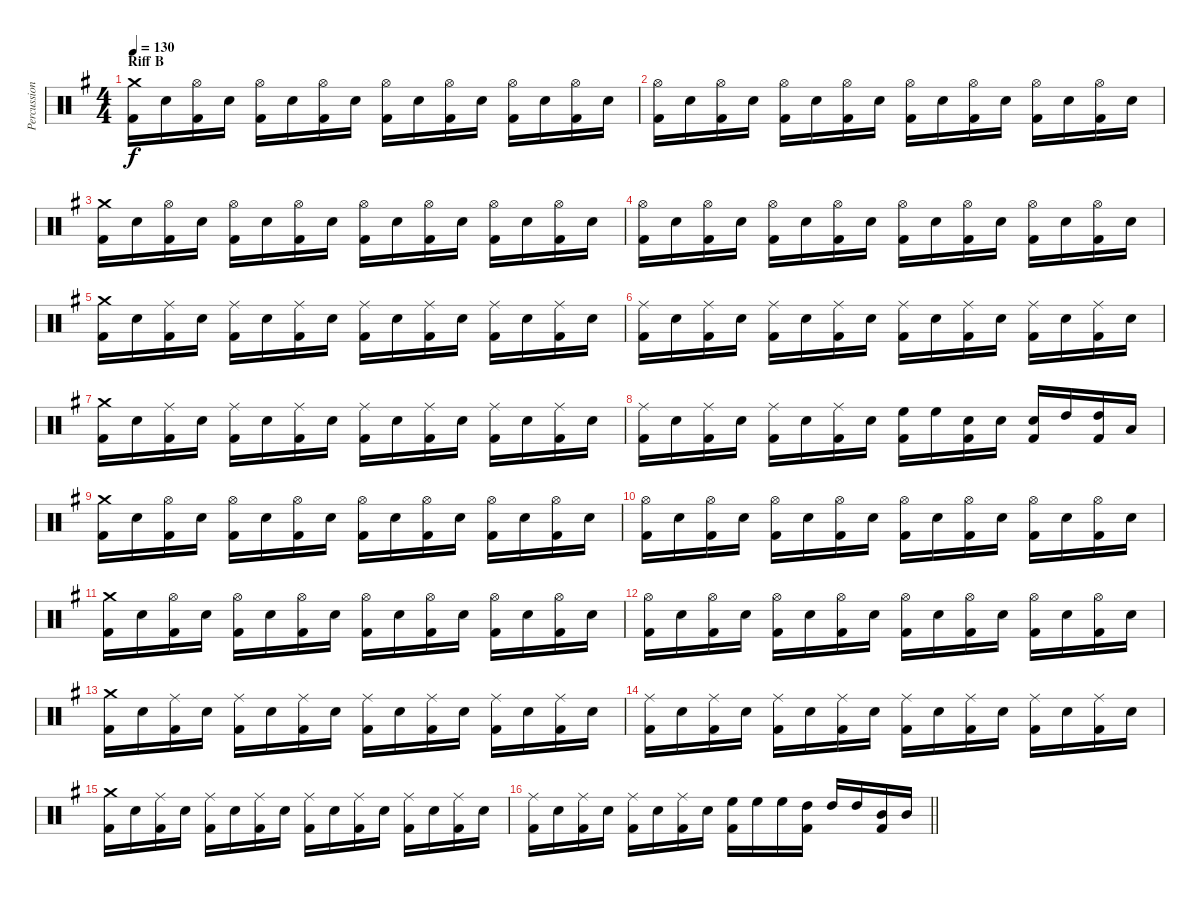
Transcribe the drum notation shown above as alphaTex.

\track ("Percussion" "Percussion") {instrument percussion}
\staff {score}
\articulation defaults
\ts (4 4)
\section ("" "Riff B")
\tempo 130
\clef neutral
\ks eminor
("Crash medium (hit)" "Kick (hit) 2").16{dy f} "Snare (hit) 2".16 ("Hi-Hat (open)" "Kick (hit) 2").16 "Snare (hit) 2".16 ("Hi-Hat (open)" "Kick (hit) 2").16 "Snare (hit) 2".16 ("Hi-Hat (open)" "Kick (hit) 2").16 "Snare (hit) 2".16 ("Hi-Hat (open)" "Kick (hit) 2").16 "Snare (hit) 2".16 ("Hi-Hat (open)" "Kick (hit) 2").16 "Snare (hit) 2".16 ("Hi-Hat (open)" "Kick (hit) 2").16 "Snare (hit) 2".16 ("Hi-Hat (open)" "Kick (hit) 2").16 "Snare (hit) 2".16 |
("Hi-Hat (open)" "Kick (hit) 2").16 "Snare (hit) 2".16 ("Hi-Hat (open)" "Kick (hit) 2").16 "Snare (hit) 2".16 ("Hi-Hat (open)" "Kick (hit) 2").16 "Snare (hit) 2".16 ("Hi-Hat (open)" "Kick (hit) 2").16 "Snare (hit) 2".16 ("Hi-Hat (open)" "Kick (hit) 2").16 "Snare (hit) 2".16 ("Hi-Hat (open)" "Kick (hit) 2").16 "Snare (hit) 2".16 ("Hi-Hat (open)" "Kick (hit) 2").16 "Snare (hit) 2".16 ("Hi-Hat (open)" "Kick (hit) 2").16 "Snare (hit) 2".16 |
("Crash medium (hit)" "Kick (hit) 2").16 "Snare (hit) 2".16 ("Hi-Hat (open)" "Kick (hit) 2").16 "Snare (hit) 2".16 ("Hi-Hat (open)" "Kick (hit) 2").16 "Snare (hit) 2".16 ("Hi-Hat (open)" "Kick (hit) 2").16 "Snare (hit) 2".16 ("Hi-Hat (open)" "Kick (hit) 2").16 "Snare (hit) 2".16 ("Hi-Hat (open)" "Kick (hit) 2").16 "Snare (hit) 2".16 ("Hi-Hat (open)" "Kick (hit) 2").16 "Snare (hit) 2".16 ("Hi-Hat (open)" "Kick (hit) 2").16 "Snare (hit) 2".16 |
("Hi-Hat (open)" "Kick (hit) 2").16 "Snare (hit) 2".16 ("Hi-Hat (open)" "Kick (hit) 2").16 "Snare (hit) 2".16 ("Hi-Hat (open)" "Kick (hit) 2").16 "Snare (hit) 2".16 ("Hi-Hat (open)" "Kick (hit) 2").16 "Snare (hit) 2".16 ("Hi-Hat (open)" "Kick (hit) 2").16 "Snare (hit) 2".16 ("Hi-Hat (open)" "Kick (hit) 2").16 "Snare (hit) 2".16 ("Hi-Hat (open)" "Kick (hit) 2").16 "Snare (hit) 2".16 ("Hi-Hat (open)" "Kick (hit) 2").16 "Snare (hit) 2".16 |
("Crash medium (hit)" "Kick (hit) 2").16 "Snare (hit) 2".16 ("Ride (middle)" "Kick (hit) 2").16 "Snare (hit) 2".16 ("Ride (middle)" "Kick (hit) 2").16 "Snare (hit) 2".16 ("Ride (middle)" "Kick (hit) 2").16 "Snare (hit) 2".16 ("Ride (middle)" "Kick (hit) 2").16 "Snare (hit) 2".16 ("Ride (middle)" "Kick (hit) 2").16 "Snare (hit) 2".16 ("Ride (middle)" "Kick (hit) 2").16 "Snare (hit) 2".16 ("Ride (middle)" "Kick (hit) 2").16 "Snare (hit) 2".16 |
("Ride (middle)" "Kick (hit) 2").16 "Snare (hit) 2".16 ("Ride (middle)" "Kick (hit) 2").16 "Snare (hit) 2".16 ("Ride (middle)" "Kick (hit) 2").16 "Snare (hit) 2".16 ("Ride (middle)" "Kick (hit) 2").16 "Snare (hit) 2".16 ("Ride (middle)" "Kick (hit) 2").16 "Snare (hit) 2".16 ("Ride (middle)" "Kick (hit) 2").16 "Snare (hit) 2".16 ("Ride (middle)" "Kick (hit) 2").16 "Snare (hit) 2".16 ("Ride (middle)" "Kick (hit) 2").16 "Snare (hit) 2".16 |
("Crash medium (hit)" "Kick (hit) 2").16 "Snare (hit) 2".16 ("Ride (middle)" "Kick (hit) 2").16 "Snare (hit) 2".16 ("Ride (middle)" "Kick (hit) 2").16 "Snare (hit) 2".16 ("Ride (middle)" "Kick (hit) 2").16 "Snare (hit) 2".16 ("Ride (middle)" "Kick (hit) 2").16 "Snare (hit) 2".16 ("Ride (middle)" "Kick (hit) 2").16 "Snare (hit) 2".16 ("Ride (middle)" "Kick (hit) 2").16 "Snare (hit) 2".16 ("Ride (middle)" "Kick (hit) 2").16 "Snare (hit) 2".16 |
("Ride (middle)" "Kick (hit) 2").16 "Snare (hit) 2".16 ("Ride (middle)" "Kick (hit) 2").16 "Snare (hit) 2".16 ("Ride (middle)" "Kick (hit) 2").16 "Snare (hit) 2".16 ("Ride (middle)" "Kick (hit) 2").16 "Snare (hit) 2".16 ("High Floor Tom (hit)" "Kick (hit) 2").16 "High Floor Tom (hit)".16 ("Snare (hit) 2" "Kick (hit) 2").16 "Snare (hit) 2".16 ("Snare (hit) 2" "Kick (hit) 2").16 "High Tom (hit)".16 ("High Tom (hit)" "Kick (hit) 2").16 "Low Tom (hit)".16 |
("Crash medium (hit)" "Kick (hit) 2").16 "Snare (hit) 2".16 ("Hi-Hat (open)" "Kick (hit) 2").16 "Snare (hit) 2".16 ("Hi-Hat (open)" "Kick (hit) 2").16 "Snare (hit) 2".16 ("Hi-Hat (open)" "Kick (hit) 2").16 "Snare (hit) 2".16 ("Hi-Hat (open)" "Kick (hit) 2").16 "Snare (hit) 2".16 ("Hi-Hat (open)" "Kick (hit) 2").16 "Snare (hit) 2".16 ("Hi-Hat (open)" "Kick (hit) 2").16 "Snare (hit) 2".16 ("Hi-Hat (open)" "Kick (hit) 2").16 "Snare (hit) 2".16 |
("Hi-Hat (open)" "Kick (hit) 2").16 "Snare (hit) 2".16 ("Hi-Hat (open)" "Kick (hit) 2").16 "Snare (hit) 2".16 ("Hi-Hat (open)" "Kick (hit) 2").16 "Snare (hit) 2".16 ("Hi-Hat (open)" "Kick (hit) 2").16 "Snare (hit) 2".16 ("Hi-Hat (open)" "Kick (hit) 2").16 "Snare (hit) 2".16 ("Hi-Hat (open)" "Kick (hit) 2").16 "Snare (hit) 2".16 ("Hi-Hat (open)" "Kick (hit) 2").16 "Snare (hit) 2".16 ("Hi-Hat (open)" "Kick (hit) 2").16 "Snare (hit) 2".16 |
("Crash medium (hit)" "Kick (hit) 2").16 "Snare (hit) 2".16 ("Hi-Hat (open)" "Kick (hit) 2").16 "Snare (hit) 2".16 ("Hi-Hat (open)" "Kick (hit) 2").16 "Snare (hit) 2".16 ("Hi-Hat (open)" "Kick (hit) 2").16 "Snare (hit) 2".16 ("Hi-Hat (open)" "Kick (hit) 2").16 "Snare (hit) 2".16 ("Hi-Hat (open)" "Kick (hit) 2").16 "Snare (hit) 2".16 ("Hi-Hat (open)" "Kick (hit) 2").16 "Snare (hit) 2".16 ("Hi-Hat (open)" "Kick (hit) 2").16 "Snare (hit) 2".16 |
("Hi-Hat (open)" "Kick (hit) 2").16 "Snare (hit) 2".16 ("Hi-Hat (open)" "Kick (hit) 2").16 "Snare (hit) 2".16 ("Hi-Hat (open)" "Kick (hit) 2").16 "Snare (hit) 2".16 ("Hi-Hat (open)" "Kick (hit) 2").16 "Snare (hit) 2".16 ("Hi-Hat (open)" "Kick (hit) 2").16 "Snare (hit) 2".16 ("Hi-Hat (open)" "Kick (hit) 2").16 "Snare (hit) 2".16 ("Hi-Hat (open)" "Kick (hit) 2").16 "Snare (hit) 2".16 ("Hi-Hat (open)" "Kick (hit) 2").16 "Snare (hit) 2".16 |
("Crash medium (hit)" "Kick (hit) 2").16 "Snare (hit) 2".16 ("Ride (middle)" "Kick (hit) 2").16 "Snare (hit) 2".16 ("Ride (middle)" "Kick (hit) 2").16 "Snare (hit) 2".16 ("Ride (middle)" "Kick (hit) 2").16 "Snare (hit) 2".16 ("Ride (middle)" "Kick (hit) 2").16 "Snare (hit) 2".16 ("Ride (middle)" "Kick (hit) 2").16 "Snare (hit) 2".16 ("Ride (middle)" "Kick (hit) 2").16 "Snare (hit) 2".16 ("Ride (middle)" "Kick (hit) 2").16 "Snare (hit) 2".16 |
("Ride (middle)" "Kick (hit) 2").16 "Snare (hit) 2".16 ("Ride (middle)" "Kick (hit) 2").16 "Snare (hit) 2".16 ("Ride (middle)" "Kick (hit) 2").16 "Snare (hit) 2".16 ("Ride (middle)" "Kick (hit) 2").16 "Snare (hit) 2".16 ("Ride (middle)" "Kick (hit) 2").16 "Snare (hit) 2".16 ("Ride (middle)" "Kick (hit) 2").16 "Snare (hit) 2".16 ("Ride (middle)" "Kick (hit) 2").16 "Snare (hit) 2".16 ("Ride (middle)" "Kick (hit) 2").16 "Snare (hit) 2".16 |
("Crash medium (hit)" "Kick (hit) 2").16 "Snare (hit) 2".16 ("Ride (middle)" "Kick (hit) 2").16 "Snare (hit) 2".16 ("Ride (middle)" "Kick (hit) 2").16 "Snare (hit) 2".16 ("Ride (middle)" "Kick (hit) 2").16 "Snare (hit) 2".16 ("Ride (middle)" "Kick (hit) 2").16 "Snare (hit) 2".16 ("Ride (middle)" "Kick (hit) 2").16 "Snare (hit) 2".16 ("Ride (middle)" "Kick (hit) 2").16 "Snare (hit) 2".16 ("Ride (middle)" "Kick (hit) 2").16 "Snare (hit) 2".16 |
\barLineRight lightlight
("Ride (middle)" "Kick (hit) 2").16 "Snare (hit) 2".16 ("Ride (middle)" "Kick (hit) 2").16 "Snare (hit) 2".16 ("Ride (middle)" "Kick (hit) 2").16 "Snare (hit) 2".16 ("Ride (middle)" "Kick (hit) 2").16 "Snare (hit) 2".16 ("High Floor Tom (hit)" "Kick (hit) 2").16 "High Floor Tom (hit)".16 "High Floor Tom (hit)".16 ("High Tom (hit)" "Kick (hit) 2").16 "High Tom (hit)".16 "High Tom (hit)".16 ("Mid Tom (hit)" "Kick (hit) 2").16 "Mid Tom (hit)".16
